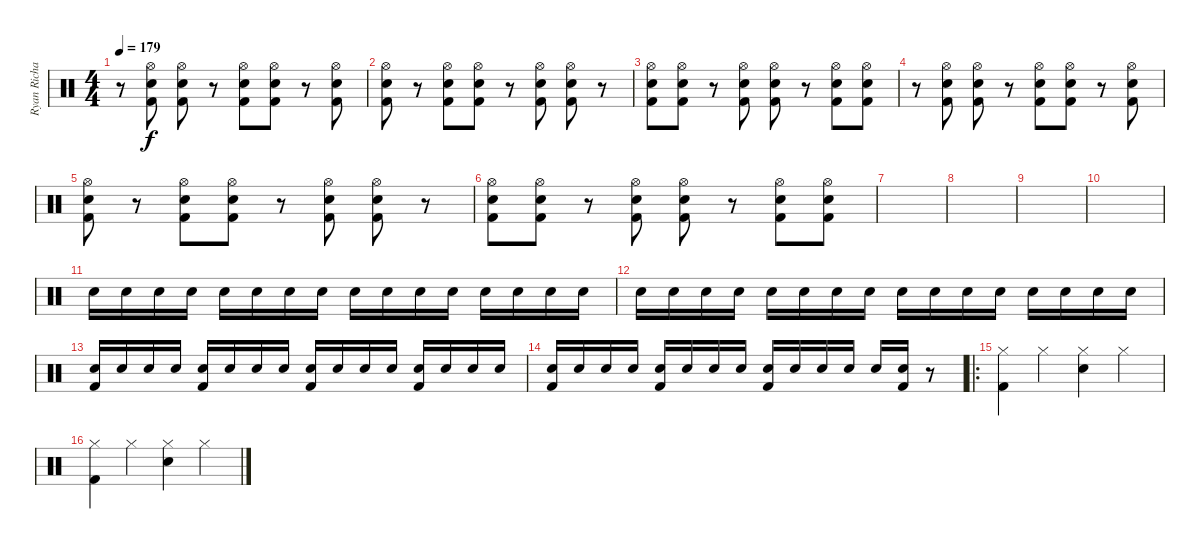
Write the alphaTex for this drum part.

\track ("Ryan Richards" "Ryan Richa") {instrument percussion}
\staff {score}
\articulation defaults
\ts (4 4)
\tempo 179
\clef neutral
\ks c
r.8{dy f} ("Hi-Hat (open)" "Snare (hit) 2" "Kick (hit) 2").8 ("Hi-Hat (open)" "Snare (hit) 2" "Kick (hit) 2").8 r.8 ("Hi-Hat (open)" "Snare (hit) 2" "Kick (hit) 2").8 ("Hi-Hat (open)" "Snare (hit) 2" "Kick (hit) 2").8 r.8 ("Hi-Hat (open)" "Snare (hit) 2" "Kick (hit) 2").8 |
("Hi-Hat (open)" "Snare (hit) 2" "Kick (hit) 2").8 r.8 ("Hi-Hat (open)" "Snare (hit) 2" "Kick (hit) 2").8 ("Hi-Hat (open)" "Snare (hit) 2" "Kick (hit) 2").8 r.8 ("Hi-Hat (open)" "Snare (hit) 2" "Kick (hit) 2").8 ("Hi-Hat (open)" "Snare (hit) 2" "Kick (hit) 2").8 r.8 |
("Hi-Hat (open)" "Snare (hit) 2" "Kick (hit) 2").8 ("Hi-Hat (open)" "Snare (hit) 2" "Kick (hit) 2").8 r.8 ("Hi-Hat (open)" "Snare (hit) 2" "Kick (hit) 2").8 ("Hi-Hat (open)" "Snare (hit) 2" "Kick (hit) 2").8 r.8 ("Hi-Hat (open)" "Snare (hit) 2" "Kick (hit) 2").8 ("Hi-Hat (open)" "Snare (hit) 2" "Kick (hit) 2").8 |
r.8 ("Hi-Hat (open)" "Snare (hit) 2" "Kick (hit) 2").8 ("Hi-Hat (open)" "Snare (hit) 2" "Kick (hit) 2").8 r.8 ("Hi-Hat (open)" "Snare (hit) 2" "Kick (hit) 2").8 ("Hi-Hat (open)" "Snare (hit) 2" "Kick (hit) 2").8 r.8 ("Hi-Hat (open)" "Snare (hit) 2" "Kick (hit) 2").8 |
("Hi-Hat (open)" "Snare (hit) 2" "Kick (hit) 2").8 r.8 ("Hi-Hat (open)" "Snare (hit) 2" "Kick (hit) 2").8 ("Hi-Hat (open)" "Snare (hit) 2" "Kick (hit) 2").8 r.8 ("Hi-Hat (open)" "Snare (hit) 2" "Kick (hit) 2").8 ("Hi-Hat (open)" "Snare (hit) 2" "Kick (hit) 2").8 r.8 |
("Hi-Hat (open)" "Snare (hit) 2" "Kick (hit) 2").8 ("Hi-Hat (open)" "Snare (hit) 2" "Kick (hit) 2").8 r.8 ("Hi-Hat (open)" "Snare (hit) 2" "Kick (hit) 2").8 ("Hi-Hat (open)" "Snare (hit) 2" "Kick (hit) 2").8 r.8 ("Hi-Hat (open)" "Snare (hit) 2" "Kick (hit) 2").8 ("Hi-Hat (open)" "Snare (hit) 2" "Kick (hit) 2").8 |
|
|
|
|
"Snare (hit) 2".16 "Snare (hit) 2".16 "Snare (hit) 2".16 "Snare (hit) 2".16 "Snare (hit) 2".16 "Snare (hit) 2".16 "Snare (hit) 2".16 "Snare (hit) 2".16 "Snare (hit) 2".16 "Snare (hit) 2".16 "Snare (hit) 2".16 "Snare (hit) 2".16 "Snare (hit) 2".16 "Snare (hit) 2".16 "Snare (hit) 2".16 "Snare (hit) 2".16 |
"Snare (hit) 2".16 "Snare (hit) 2".16 "Snare (hit) 2".16 "Snare (hit) 2".16 "Snare (hit) 2".16 "Snare (hit) 2".16 "Snare (hit) 2".16 "Snare (hit) 2".16 "Snare (hit) 2".16 "Snare (hit) 2".16 "Snare (hit) 2".16 "Snare (hit) 2".16 "Snare (hit) 2".16 "Snare (hit) 2".16 "Snare (hit) 2".16 "Snare (hit) 2".16 |
("Snare (hit) 2" "Kick (hit) 2").16 "Snare (hit) 2".16 "Snare (hit) 2".16 "Snare (hit) 2".16 ("Snare (hit) 2" "Kick (hit) 2").16 "Snare (hit) 2".16 "Snare (hit) 2".16 "Snare (hit) 2".16 ("Snare (hit) 2" "Kick (hit) 2").16 "Snare (hit) 2".16 "Snare (hit) 2".16 "Snare (hit) 2".16 ("Snare (hit) 2" "Kick (hit) 2").16 "Snare (hit) 2".16 "Snare (hit) 2".16 "Snare (hit) 2".16 |
("Snare (hit) 2" "Kick (hit) 2").16 "Snare (hit) 2".16 "Snare (hit) 2".16 "Snare (hit) 2".16 ("Snare (hit) 2" "Kick (hit) 2").16 "Snare (hit) 2".16 "Snare (hit) 2".16 "Snare (hit) 2".16 ("Snare (hit) 2" "Kick (hit) 2").16 "Snare (hit) 2".16 "Snare (hit) 2".16 "Snare (hit) 2".16 "Snare (hit) 2".16 ("Snare (hit) 2" "Kick (hit) 2").16 r.8 |
\ro
("Hi-Hat (closed)" "Kick (hit) 2").4 "Hi-Hat (closed)".4 ("Hi-Hat (closed)" "Snare (hit) 2").4 "Hi-Hat (closed)".4 |
("Hi-Hat (closed)" "Kick (hit) 2").4 "Hi-Hat (closed)".4 ("Hi-Hat (closed)" "Snare (hit) 2").4 "Hi-Hat (closed)".4
